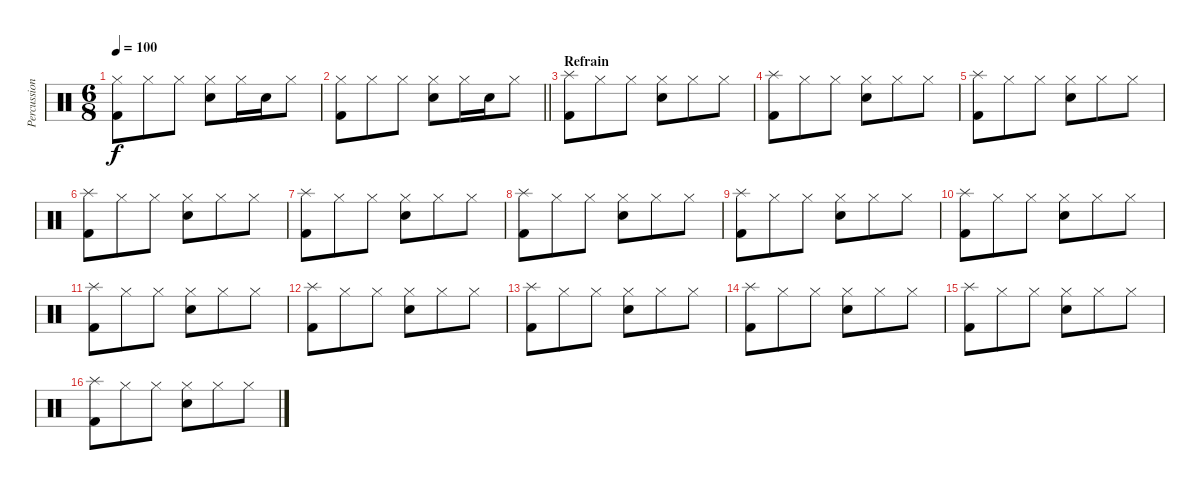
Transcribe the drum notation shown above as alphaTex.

\track ("Percussion" "Percussion") {instrument percussion}
\staff {score}
\articulation defaults
\ts (6 8)
\tempo 100
\clef neutral
\ks c
("Hi-Hat (closed)" "Kick (hit) 2").8{dy f} "Hi-Hat (closed)".8 "Hi-Hat (closed)".8 ("Hi-Hat (closed)" "Snare (hit) 2").8 "Hi-Hat (closed)".16 "Snare (hit) 2".16 "Hi-Hat (closed)".8 |
\barLineRight lightlight
("Hi-Hat (closed)" "Kick (hit) 2").8 "Hi-Hat (closed)".8 "Hi-Hat (closed)".8 ("Hi-Hat (closed)" "Snare (hit) 2").8 "Hi-Hat (closed)".16 "Snare (hit) 2".16 "Hi-Hat (closed)".8 |
\section ("" "Refrain")
("Splash (hit)" "Kick (hit) 2").8 "Hi-Hat (closed)".8 "Hi-Hat (closed)".8 ("Hi-Hat (closed)" "Electric Snare (hit)").8 "Hi-Hat (closed)".8 "Hi-Hat (closed)".8 |
("Splash (hit)" "Kick (hit) 2").8 "Hi-Hat (closed)".8 "Hi-Hat (closed)".8 ("Hi-Hat (closed)" "Electric Snare (hit)").8 "Hi-Hat (closed)".8 "Hi-Hat (closed)".8 |
("Splash (hit)" "Kick (hit) 2").8 "Hi-Hat (closed)".8 "Hi-Hat (closed)".8 ("Hi-Hat (closed)" "Electric Snare (hit)").8 "Hi-Hat (closed)".8 "Hi-Hat (closed)".8 |
("Splash (hit)" "Kick (hit) 2").8 "Hi-Hat (closed)".8 "Hi-Hat (closed)".8 ("Hi-Hat (closed)" "Electric Snare (hit)").8 "Hi-Hat (closed)".8 "Hi-Hat (closed)".8 |
("Splash (hit)" "Kick (hit) 2").8 "Hi-Hat (closed)".8 "Hi-Hat (closed)".8 ("Hi-Hat (closed)" "Electric Snare (hit)").8 "Hi-Hat (closed)".8 "Hi-Hat (closed)".8 |
("Splash (hit)" "Kick (hit) 2").8 "Hi-Hat (closed)".8 "Hi-Hat (closed)".8 ("Hi-Hat (closed)" "Electric Snare (hit)").8 "Hi-Hat (closed)".8 "Hi-Hat (closed)".8 |
("Splash (hit)" "Kick (hit) 2").8 "Hi-Hat (closed)".8 "Hi-Hat (closed)".8 ("Hi-Hat (closed)" "Electric Snare (hit)").8 "Hi-Hat (closed)".8 "Hi-Hat (closed)".8 |
("Splash (hit)" "Kick (hit) 2").8 "Hi-Hat (closed)".8 "Hi-Hat (closed)".8 ("Hi-Hat (closed)" "Electric Snare (hit)").8 "Hi-Hat (closed)".8 "Hi-Hat (closed)".8 |
("Splash (hit)" "Kick (hit) 2").8 "Hi-Hat (closed)".8 "Hi-Hat (closed)".8 ("Hi-Hat (closed)" "Electric Snare (hit)").8 "Hi-Hat (closed)".8 "Hi-Hat (closed)".8 |
("Splash (hit)" "Kick (hit) 2").8 "Hi-Hat (closed)".8 "Hi-Hat (closed)".8 ("Hi-Hat (closed)" "Electric Snare (hit)").8 "Hi-Hat (closed)".8 "Hi-Hat (closed)".8 |
("Splash (hit)" "Kick (hit) 2").8 "Hi-Hat (closed)".8 "Hi-Hat (closed)".8 ("Hi-Hat (closed)" "Electric Snare (hit)").8 "Hi-Hat (closed)".8 "Hi-Hat (closed)".8 |
("Splash (hit)" "Kick (hit) 2").8 "Hi-Hat (closed)".8 "Hi-Hat (closed)".8 ("Hi-Hat (closed)" "Electric Snare (hit)").8 "Hi-Hat (closed)".8 "Hi-Hat (closed)".8 |
("Splash (hit)" "Kick (hit) 2").8 "Hi-Hat (closed)".8 "Hi-Hat (closed)".8 ("Hi-Hat (closed)" "Electric Snare (hit)").8 "Hi-Hat (closed)".8 "Hi-Hat (closed)".8 |
("Splash (hit)" "Kick (hit) 2").8 "Hi-Hat (closed)".8 "Hi-Hat (closed)".8 ("Hi-Hat (closed)" "Electric Snare (hit)").8 "Hi-Hat (closed)".8 "Hi-Hat (closed)".8
